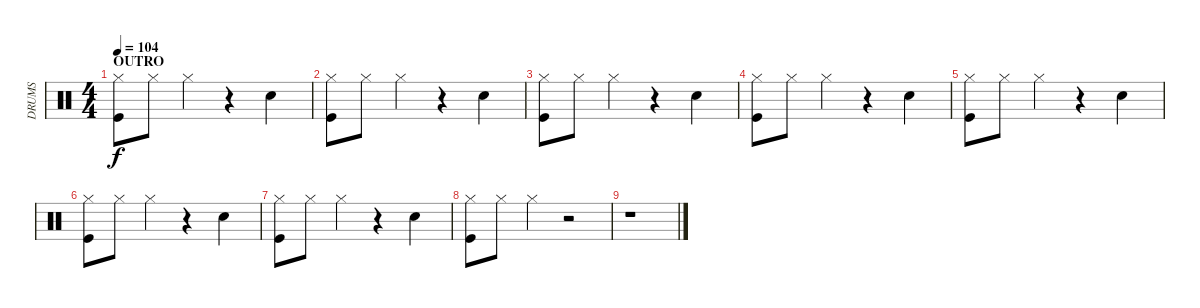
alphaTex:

\track ("DRUMS" "DRUMS") {instrument percussion}
\staff {score}
\articulation defaults
\ts (4 4)
\section ("" "OUTRO")
\tempo 104
\clef neutral
\ks c
("Hi-Hat (closed)" "Kick (hit)").8{dy f} "Hi-Hat (closed)".8 "Hi-Hat (closed)".4 r.4 "Snare (hit) 2".4 |
("Hi-Hat (closed)" "Kick (hit)").8 "Hi-Hat (closed)".8 "Hi-Hat (closed)".4 r.4 "Snare (hit) 2".4 |
("Hi-Hat (closed)" "Kick (hit)").8 "Hi-Hat (closed)".8 "Hi-Hat (closed)".4 r.4 "Snare (hit) 2".4 |
("Hi-Hat (closed)" "Kick (hit)").8 "Hi-Hat (closed)".8 "Hi-Hat (closed)".4 r.4 "Snare (hit) 2".4 |
("Hi-Hat (closed)" "Kick (hit)").8 "Hi-Hat (closed)".8 "Hi-Hat (closed)".4 r.4 "Snare (hit) 2".4 |
("Hi-Hat (closed)" "Kick (hit)").8 "Hi-Hat (closed)".8 "Hi-Hat (closed)".4 r.4 "Snare (hit) 2".4 |
("Hi-Hat (closed)" "Kick (hit)").8 "Hi-Hat (closed)".8 "Hi-Hat (closed)".4 r.4 "Snare (hit) 2".4 |
("Hi-Hat (closed)" "Kick (hit)").8 "Hi-Hat (closed)".8 "Hi-Hat (closed)".4 r.2 |
r.1
